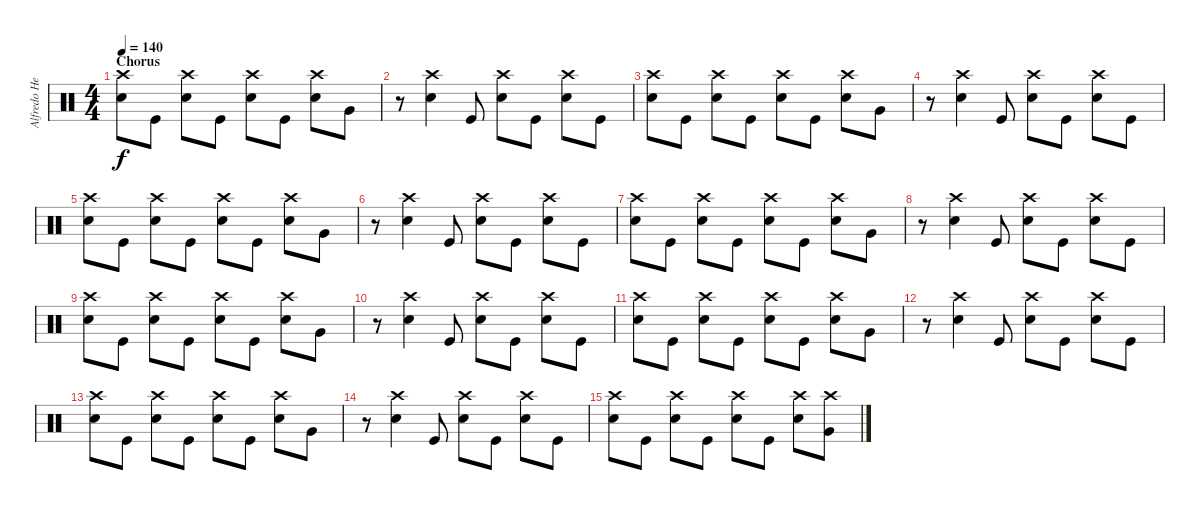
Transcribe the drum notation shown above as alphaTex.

\track ("Alfredo Hernandez - Percussion" "Alfredo He") {instrument percussion}
\staff {score}
\articulation defaults
\ts (4 4)
\section ("" "Chorus")
\tempo 140
\clef neutral
\ks c
("Snare (hit) 2" "Crash high (hit)").8{dy f} "Kick (hit)".8 ("Snare (hit) 2" "Crash high (hit)").8 "Kick (hit)".8 ("Snare (hit) 2" "Crash high (hit)").8 "Kick (hit)".8 ("Snare (hit) 2" "Crash high (hit)").8 "Very Low Tom (hit)".8 |
r.8 ("Snare (hit) 2" "Crash high (hit)").4 "Kick (hit)".8 ("Snare (hit) 2" "Crash high (hit)").8 "Kick (hit)".8 ("Snare (hit) 2" "Crash high (hit)").8 "Kick (hit)".8 |
("Snare (hit) 2" "Crash high (hit)").8 "Kick (hit)".8 ("Snare (hit) 2" "Crash high (hit)").8 "Kick (hit)".8 ("Snare (hit) 2" "Crash high (hit)").8 "Kick (hit)".8 ("Snare (hit) 2" "Crash high (hit)").8 "Very Low Tom (hit)".8 |
r.8 ("Snare (hit) 2" "Crash high (hit)").4 "Kick (hit)".8 ("Snare (hit) 2" "Crash high (hit)").8 "Kick (hit)".8 ("Snare (hit) 2" "Crash high (hit)").8 "Kick (hit)".8 |
("Snare (hit) 2" "Crash high (hit)").8 "Kick (hit)".8 ("Snare (hit) 2" "Crash high (hit)").8 "Kick (hit)".8 ("Snare (hit) 2" "Crash high (hit)").8 "Kick (hit)".8 ("Snare (hit) 2" "Crash high (hit)").8 "Very Low Tom (hit)".8 |
r.8 ("Snare (hit) 2" "Crash high (hit)").4 "Kick (hit)".8 ("Snare (hit) 2" "Crash high (hit)").8 "Kick (hit)".8 ("Snare (hit) 2" "Crash high (hit)").8 "Kick (hit)".8 |
("Snare (hit) 2" "Crash high (hit)").8 "Kick (hit)".8 ("Snare (hit) 2" "Crash high (hit)").8 "Kick (hit)".8 ("Snare (hit) 2" "Crash high (hit)").8 "Kick (hit)".8 ("Snare (hit) 2" "Crash high (hit)").8 "Very Low Tom (hit)".8 |
r.8 ("Snare (hit) 2" "Crash high (hit)").4 "Kick (hit)".8 ("Snare (hit) 2" "Crash high (hit)").8 "Kick (hit)".8 ("Snare (hit) 2" "Crash high (hit)").8 "Kick (hit)".8 |
("Snare (hit) 2" "Crash high (hit)").8 "Kick (hit)".8 ("Snare (hit) 2" "Crash high (hit)").8 "Kick (hit)".8 ("Snare (hit) 2" "Crash high (hit)").8 "Kick (hit)".8 ("Snare (hit) 2" "Crash high (hit)").8 "Very Low Tom (hit)".8 |
r.8 ("Snare (hit) 2" "Crash high (hit)").4 "Kick (hit)".8 ("Snare (hit) 2" "Crash high (hit)").8 "Kick (hit)".8 ("Snare (hit) 2" "Crash high (hit)").8 "Kick (hit)".8 |
("Snare (hit) 2" "Crash high (hit)").8 "Kick (hit)".8 ("Snare (hit) 2" "Crash high (hit)").8 "Kick (hit)".8 ("Snare (hit) 2" "Crash high (hit)").8 "Kick (hit)".8 ("Snare (hit) 2" "Crash high (hit)").8 "Very Low Tom (hit)".8 |
r.8 ("Snare (hit) 2" "Crash high (hit)").4 "Kick (hit)".8 ("Snare (hit) 2" "Crash high (hit)").8 "Kick (hit)".8 ("Snare (hit) 2" "Crash high (hit)").8 "Kick (hit)".8 |
("Snare (hit) 2" "Crash high (hit)").8 "Kick (hit)".8 ("Snare (hit) 2" "Crash high (hit)").8 "Kick (hit)".8 ("Snare (hit) 2" "Crash high (hit)").8 "Kick (hit)".8 ("Snare (hit) 2" "Crash high (hit)").8 "Very Low Tom (hit)".8 |
r.8 ("Snare (hit) 2" "Crash high (hit)").4 "Kick (hit)".8 ("Snare (hit) 2" "Crash high (hit)").8 "Kick (hit)".8 ("Snare (hit) 2" "Crash high (hit)").8 "Kick (hit)".8 |
("Snare (hit) 2" "Crash high (hit)").8 "Kick (hit)".8 ("Snare (hit) 2" "Crash high (hit)").8 "Kick (hit)".8 ("Snare (hit) 2" "Crash high (hit)").8 "Kick (hit)".8 ("Snare (hit) 2" "Crash high (hit)").8 ("Very Low Tom (hit)" "Crash high (hit)").8
